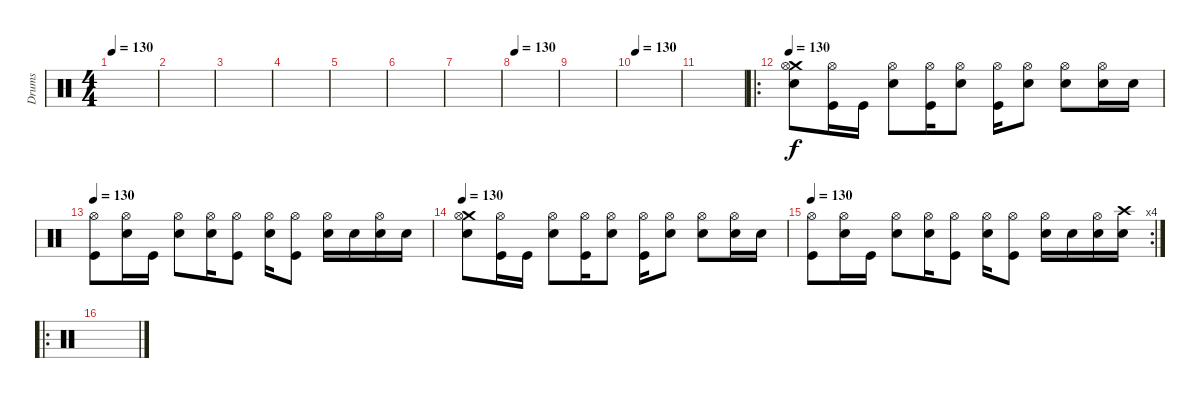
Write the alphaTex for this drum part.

\track ("Drums" "Drums") {instrument percussion}
\staff {score}
\articulation defaults
\ts (4 4)
\tempo 130
\clef neutral
\ks c
|
|
|
|
|
|
|
\tempo 130
|
|
\tempo 130
|
|
\ro
\tempo 130
("Crash medium (hit)" "Snare (hit) 2" "Hi-Hat (open)").8 ("Kick (hit)" "Hi-Hat (open)").16 "Kick (hit)".16 ("Snare (hit) 2" "Hi-Hat (open)").8 ("Kick (hit)" "Hi-Hat (open)").16 ("Snare (hit) 2" "Hi-Hat (open)").8 ("Kick (hit)" "Hi-Hat (open)").16 ("Snare (hit) 2" "Hi-Hat (open)").8 ("Snare (hit) 2" "Hi-Hat (open)").8 ("Snare (hit) 2" "Hi-Hat (open)").16 "Snare (hit) 2".16 |
\tempo 130
("Kick (hit)" "Hi-Hat (open)").8 ("Snare (hit) 2" "Hi-Hat (open)").16 "Kick (hit)".16 ("Snare (hit) 2" "Hi-Hat (open)").8 ("Snare (hit) 2" "Hi-Hat (open)").16 ("Kick (hit)" "Hi-Hat (open)").8 ("Snare (hit) 2" "Hi-Hat (open)").16 ("Kick (hit)" "Hi-Hat (open)").8 ("Snare (hit) 2" "Hi-Hat (open)").16 "Snare (hit) 2".16 ("Snare (hit) 2" "Hi-Hat (open)").16 "Snare (hit) 2".16 |
\tempo 130
("Crash medium (hit)" "Snare (hit) 2" "Hi-Hat (open)").8 ("Kick (hit)" "Hi-Hat (open)").16 "Kick (hit)".16 ("Snare (hit) 2" "Hi-Hat (open)").8 ("Kick (hit)" "Hi-Hat (open)").16 ("Snare (hit) 2" "Hi-Hat (open)").8 ("Kick (hit)" "Hi-Hat (open)").16 ("Snare (hit) 2" "Hi-Hat (open)").8 ("Snare (hit) 2" "Hi-Hat (open)").8 ("Snare (hit) 2" "Hi-Hat (open)").16 "Snare (hit) 2".16 |
\rc 4
\tempo 130
("Kick (hit)" "Hi-Hat (open)").8 ("Snare (hit) 2" "Hi-Hat (open)").16 "Kick (hit)".16 ("Snare (hit) 2" "Hi-Hat (open)").8 ("Snare (hit) 2" "Hi-Hat (open)").16 ("Kick (hit)" "Hi-Hat (open)").8 ("Snare (hit) 2" "Hi-Hat (open)").16 ("Kick (hit)" "Hi-Hat (open)").8 ("Snare (hit) 2" "Hi-Hat (open)").16 "Snare (hit) 2".16 ("Snare (hit) 2" "Hi-Hat (open)").16 ("Crash high (hit)" "Snare (hit) 2").16 |
\ro
